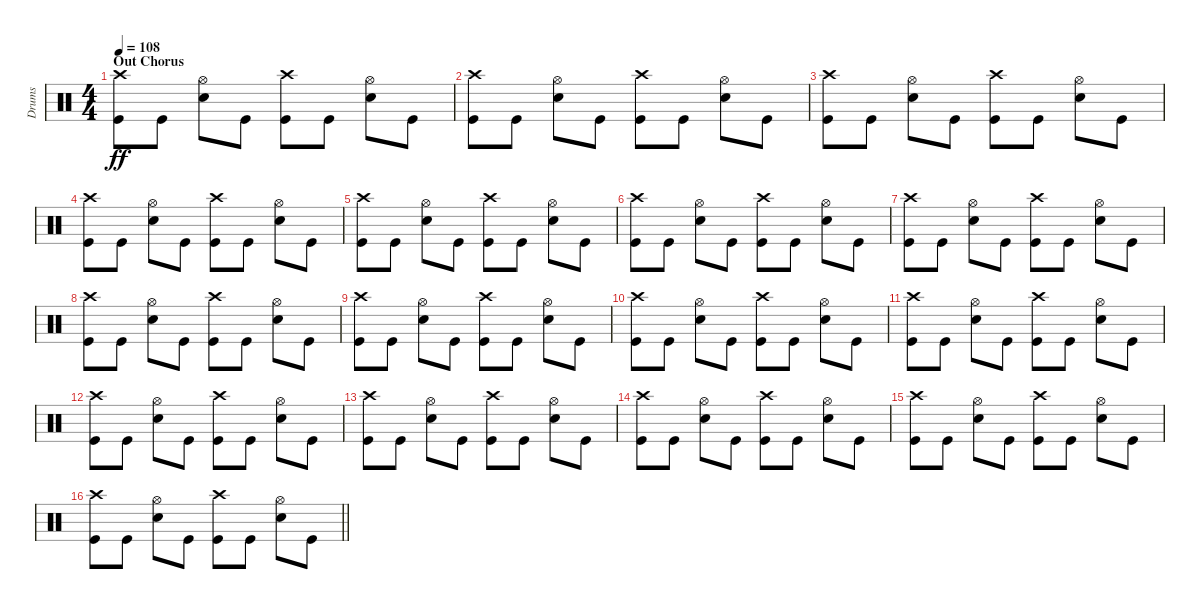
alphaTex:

\track ("Drums" "Drums") {instrument percussion}
\staff {score}
\articulation defaults
\ts (4 4)
\section ("" "Out Chorus")
\tempo 108
\clef neutral
\ks c
("Crash high (hit)" "Kick (hit)").8{dy ff} "Kick (hit)".8 ("Hi-Hat (open)" "Snare (hit) 2").8 "Kick (hit)".8 ("Crash high (hit)" "Kick (hit)").8 "Kick (hit)".8 ("Hi-Hat (open)" "Snare (hit) 2").8 "Kick (hit)".8 |
("Crash high (hit)" "Kick (hit)").8 "Kick (hit)".8 ("Hi-Hat (open)" "Snare (hit) 2").8 "Kick (hit)".8 ("Crash high (hit)" "Kick (hit)").8 "Kick (hit)".8 ("Hi-Hat (open)" "Snare (hit) 2").8 "Kick (hit)".8 |
("Crash high (hit)" "Kick (hit)").8 "Kick (hit)".8 ("Hi-Hat (open)" "Snare (hit) 2").8 "Kick (hit)".8 ("Crash high (hit)" "Kick (hit)").8 "Kick (hit)".8 ("Hi-Hat (open)" "Snare (hit) 2").8 "Kick (hit)".8 |
("Crash high (hit)" "Kick (hit)").8 "Kick (hit)".8 ("Hi-Hat (open)" "Snare (hit) 2").8 "Kick (hit)".8 ("Crash high (hit)" "Kick (hit)").8 "Kick (hit)".8 ("Hi-Hat (open)" "Snare (hit) 2").8 "Kick (hit)".8 |
("Crash high (hit)" "Kick (hit)").8 "Kick (hit)".8 ("Hi-Hat (open)" "Snare (hit) 2").8 "Kick (hit)".8 ("Crash high (hit)" "Kick (hit)").8 "Kick (hit)".8 ("Hi-Hat (open)" "Snare (hit) 2").8 "Kick (hit)".8 |
("Crash high (hit)" "Kick (hit)").8 "Kick (hit)".8 ("Hi-Hat (open)" "Snare (hit) 2").8 "Kick (hit)".8 ("Crash high (hit)" "Kick (hit)").8 "Kick (hit)".8 ("Hi-Hat (open)" "Snare (hit) 2").8 "Kick (hit)".8 |
("Crash high (hit)" "Kick (hit)").8 "Kick (hit)".8 ("Hi-Hat (open)" "Snare (hit) 2").8 "Kick (hit)".8 ("Crash high (hit)" "Kick (hit)").8 "Kick (hit)".8 ("Hi-Hat (open)" "Snare (hit) 2").8 "Kick (hit)".8 |
("Crash high (hit)" "Kick (hit)").8 "Kick (hit)".8 ("Hi-Hat (open)" "Snare (hit) 2").8 "Kick (hit)".8 ("Crash high (hit)" "Kick (hit)").8 "Kick (hit)".8 ("Hi-Hat (open)" "Snare (hit) 2").8 "Kick (hit)".8 |
("Crash high (hit)" "Kick (hit)").8 "Kick (hit)".8 ("Hi-Hat (open)" "Snare (hit) 2").8 "Kick (hit)".8 ("Crash high (hit)" "Kick (hit)").8 "Kick (hit)".8 ("Hi-Hat (open)" "Snare (hit) 2").8 "Kick (hit)".8 |
("Crash high (hit)" "Kick (hit)").8 "Kick (hit)".8 ("Hi-Hat (open)" "Snare (hit) 2").8 "Kick (hit)".8 ("Crash high (hit)" "Kick (hit)").8 "Kick (hit)".8 ("Hi-Hat (open)" "Snare (hit) 2").8 "Kick (hit)".8 |
("Crash high (hit)" "Kick (hit)").8 "Kick (hit)".8 ("Hi-Hat (open)" "Snare (hit) 2").8 "Kick (hit)".8 ("Crash high (hit)" "Kick (hit)").8 "Kick (hit)".8 ("Hi-Hat (open)" "Snare (hit) 2").8 "Kick (hit)".8 |
("Crash high (hit)" "Kick (hit)").8 "Kick (hit)".8 ("Hi-Hat (open)" "Snare (hit) 2").8 "Kick (hit)".8 ("Crash high (hit)" "Kick (hit)").8 "Kick (hit)".8 ("Hi-Hat (open)" "Snare (hit) 2").8 "Kick (hit)".8 |
("Crash high (hit)" "Kick (hit)").8 "Kick (hit)".8 ("Hi-Hat (open)" "Snare (hit) 2").8 "Kick (hit)".8 ("Crash high (hit)" "Kick (hit)").8 "Kick (hit)".8 ("Hi-Hat (open)" "Snare (hit) 2").8 "Kick (hit)".8 |
("Crash high (hit)" "Kick (hit)").8 "Kick (hit)".8 ("Hi-Hat (open)" "Snare (hit) 2").8 "Kick (hit)".8 ("Crash high (hit)" "Kick (hit)").8 "Kick (hit)".8 ("Hi-Hat (open)" "Snare (hit) 2").8 "Kick (hit)".8 |
("Crash high (hit)" "Kick (hit)").8 "Kick (hit)".8 ("Hi-Hat (open)" "Snare (hit) 2").8 "Kick (hit)".8 ("Crash high (hit)" "Kick (hit)").8 "Kick (hit)".8 ("Hi-Hat (open)" "Snare (hit) 2").8 "Kick (hit)".8 |
\barLineRight lightlight
("Crash high (hit)" "Kick (hit)").8 "Kick (hit)".8 ("Hi-Hat (open)" "Snare (hit) 2").8 "Kick (hit)".8 ("Crash high (hit)" "Kick (hit)").8 "Kick (hit)".8 ("Hi-Hat (open)" "Snare (hit) 2").8 "Kick (hit)".8
